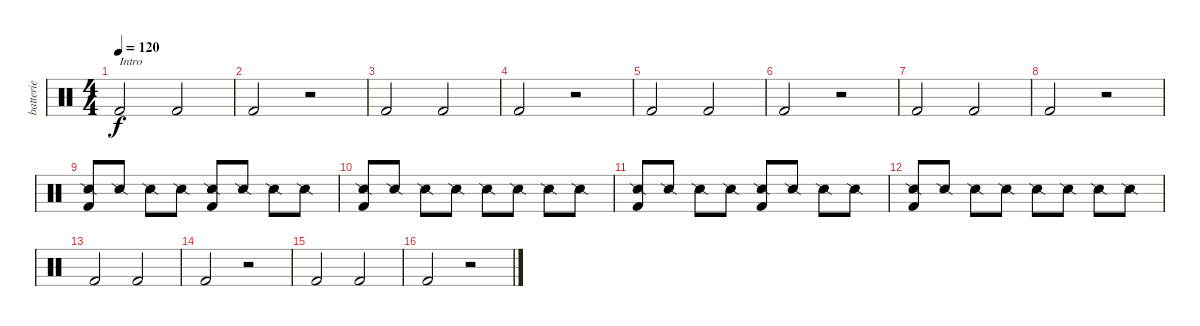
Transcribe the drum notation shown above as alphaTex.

\track ("batterie" "batterie") {instrument percussion}
\staff {score}
\articulation defaults
\ts (4 4)
\tempo 120
\clef neutral
\ks c "Kick (hit) 2".2{txt "Intro" dy f} "Kick (hit) 2".2
|
"Kick (hit) 2".2 r.2 |
"Kick (hit) 2".2 "Kick (hit) 2".2 |
"Kick (hit) 2".2 r.2 |
"Kick (hit) 2".2 "Kick (hit) 2".2 |
"Kick (hit) 2".2 r.2 |
"Kick (hit) 2".2 "Kick (hit) 2".2 |
"Kick (hit) 2".2 r.2 |
("Snare (side stick) 2" "Kick (hit) 2").8 "Snare (side stick) 2".8 "Snare (side stick) 2".8 "Snare (side stick) 2".8 ("Snare (side stick) 2" "Kick (hit) 2").8 "Snare (side stick) 2".8 "Snare (side stick) 2".8 "Snare (side stick) 2".8 |
("Snare (side stick) 2" "Kick (hit) 2").8 "Snare (side stick) 2".8 "Snare (side stick) 2".8 "Snare (side stick) 2".8 "Snare (side stick) 2".8 "Snare (side stick) 2".8 "Snare (side stick) 2".8 "Snare (side stick) 2".8 |
("Snare (side stick) 2" "Kick (hit) 2").8 "Snare (side stick) 2".8 "Snare (side stick) 2".8 "Snare (side stick) 2".8 ("Snare (side stick) 2" "Kick (hit) 2").8 "Snare (side stick) 2".8 "Snare (side stick) 2".8 "Snare (side stick) 2".8 |
("Snare (side stick) 2" "Kick (hit) 2").8 "Snare (side stick) 2".8 "Snare (side stick) 2".8 "Snare (side stick) 2".8 "Snare (side stick) 2".8 "Snare (side stick) 2".8 "Snare (side stick) 2".8 "Snare (side stick) 2".8 |
"Kick (hit) 2".2 "Kick (hit) 2".2 |
"Kick (hit) 2".2 r.2 |
"Kick (hit) 2".2 "Kick (hit) 2".2 |
"Kick (hit) 2".2 r.2
